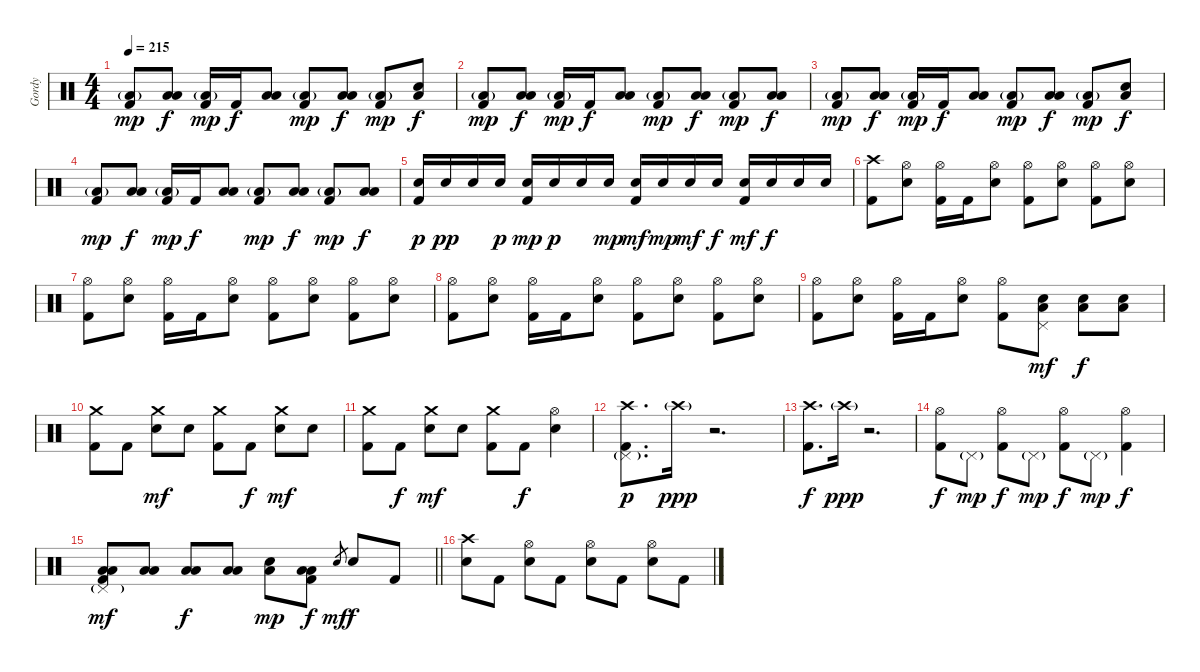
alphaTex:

\track ("Gordy" "Gordy") {instrument percussion}
\staff {score}
\articulation defaults
\ts (4 4)
\tempo 215
\clef neutral
\ks c
("Low Floor Tom (hit)"{g} "Kick (hit) 2").8{dy mp} ("Low Tom (hit)" "Low Floor Tom (hit)").8{dy f} ("Low Floor Tom (hit)"{g} "Kick (hit) 2").16{dy mp} "Kick (hit) 2".16{dy f} ("Low Tom (hit)" "Low Floor Tom (hit)").8 ("Low Floor Tom (hit)"{g} "Kick (hit) 2").8{dy mp} ("Low Tom (hit)" "Low Floor Tom (hit)").8{dy f} ("Low Floor Tom (hit)"{g} "Kick (hit) 2").8{dy mp} ("Electric Snare (hit)" "Low Floor Tom (hit)").8{dy f} |
("Low Floor Tom (hit)"{g} "Kick (hit) 2").8{dy mp} ("Low Tom (hit)" "Low Floor Tom (hit)").8{dy f} ("Low Floor Tom (hit)"{g} "Kick (hit) 2").16{dy mp} "Kick (hit) 2".16{dy f} ("Low Tom (hit)" "Low Floor Tom (hit)").8 ("Low Floor Tom (hit)"{g} "Kick (hit) 2").8{dy mp} ("Low Tom (hit)" "Low Floor Tom (hit)").8{dy f} ("Low Floor Tom (hit)"{g} "Kick (hit) 2").8{dy mp} ("Low Tom (hit)" "Low Floor Tom (hit)").8{dy f} |
("Low Floor Tom (hit)"{g} "Kick (hit) 2").8{dy mp} ("Low Tom (hit)" "Low Floor Tom (hit)").8{dy f} ("Low Floor Tom (hit)"{g} "Kick (hit) 2").16{dy mp} "Kick (hit) 2".16{dy f} ("Low Tom (hit)" "Low Floor Tom (hit)").8 ("Low Floor Tom (hit)"{g} "Kick (hit) 2").8{dy mp} ("Low Tom (hit)" "Low Floor Tom (hit)").8{dy f} ("Low Floor Tom (hit)"{g} "Kick (hit) 2").8{dy mp} ("Electric Snare (hit)" "Low Floor Tom (hit)").8{dy f} |
("Low Floor Tom (hit)"{g} "Kick (hit) 2").8{dy mp} ("Low Tom (hit)" "Low Floor Tom (hit)").8{dy f} ("Low Floor Tom (hit)"{g} "Kick (hit) 2").16{dy mp} "Kick (hit) 2".16{dy f} ("Low Tom (hit)" "Low Floor Tom (hit)").8 ("Low Floor Tom (hit)"{g} "Kick (hit) 2").8{dy mp} ("Low Tom (hit)" "Low Floor Tom (hit)").8{dy f} ("Low Floor Tom (hit)"{g} "Kick (hit) 2").8{dy mp} ("Low Tom (hit)" "Low Floor Tom (hit)").8{dy f} |
("Electric Snare (hit)" "Kick (hit) 2").16{dy p} "Electric Snare (hit)".16{dy pp} "Electric Snare (hit)".16 "Electric Snare (hit)".16{dy p} ("Electric Snare (hit)" "Kick (hit) 2").16{dy mp} "Electric Snare (hit)".16{dy p} "Electric Snare (hit)".16 "Electric Snare (hit)".16{dy mp} ("Electric Snare (hit)" "Kick (hit) 2").16{dy mf} "Electric Snare (hit)".16{dy mp} "Electric Snare (hit)".16{dy mf} "Electric Snare (hit)".16{dy f} ("Electric Snare (hit)" "Kick (hit) 2").16{dy mf} "Electric Snare (hit)".16{dy f} "Electric Snare (hit)".16 "Electric Snare (hit)".16 |
("Crash high (hit)" "Kick (hit) 2").8 ("Hi-Hat (open)" "Electric Snare (hit)").8 ("Hi-Hat (open)" "Kick (hit) 2").16 "Kick (hit) 2".16 ("Hi-Hat (open)" "Electric Snare (hit)").8 ("Hi-Hat (open)" "Kick (hit) 2").8 ("Hi-Hat (open)" "Electric Snare (hit)").8 ("Hi-Hat (open)" "Kick (hit) 2").8 ("Hi-Hat (open)" "Electric Snare (hit)").8 |
("Hi-Hat (open)" "Kick (hit) 2").8 ("Hi-Hat (open)" "Electric Snare (hit)").8 ("Hi-Hat (open)" "Kick (hit) 2").16 "Kick (hit) 2".16 ("Hi-Hat (open)" "Electric Snare (hit)").8 ("Hi-Hat (open)" "Kick (hit) 2").8 ("Hi-Hat (open)" "Electric Snare (hit)").8 ("Hi-Hat (open)" "Kick (hit) 2").8 ("Hi-Hat (open)" "Electric Snare (hit)").8 |
("Hi-Hat (open)" "Kick (hit) 2").8 ("Hi-Hat (open)" "Electric Snare (hit)").8 ("Hi-Hat (open)" "Kick (hit) 2").16 "Kick (hit) 2".16 ("Hi-Hat (open)" "Electric Snare (hit)").8 ("Hi-Hat (open)" "Kick (hit) 2").8 ("Hi-Hat (open)" "Electric Snare (hit)").8 ("Hi-Hat (open)" "Kick (hit) 2").8 ("Hi-Hat (open)" "Electric Snare (hit)").8 |
("Hi-Hat (open)" "Kick (hit) 2").8 ("Hi-Hat (open)" "Electric Snare (hit)").8 ("Hi-Hat (open)" "Kick (hit) 2").16 "Kick (hit) 2".16 ("Hi-Hat (open)" "Electric Snare (hit)").8 ("Hi-Hat (open)" "Kick (hit) 2").8 ("Pedal Hi-Hat (hit)" "Electric Snare (hit)" "Low Floor Tom (hit)").8{dy mf} ("Electric Snare (hit)" "Low Floor Tom (hit)").8{dy f} ("Electric Snare (hit)" "Low Floor Tom (hit)").8 |
("Crash medium (hit)" "Kick (hit) 2").8 "Kick (hit) 2".8 ("Crash medium (hit)" "Electric Snare (hit)").8{dy mf} "Electric Snare (hit)".8 ("Crash medium (hit)" "Kick (hit) 2").8 "Kick (hit) 2".8{dy f} ("Crash medium (hit)" "Electric Snare (hit)").8{dy mf} "Electric Snare (hit)".8 |
("Crash medium (hit)" "Kick (hit) 2").8 "Kick (hit) 2".8{dy f} ("Crash medium (hit)" "Electric Snare (hit)").8{dy mf} "Electric Snare (hit)".8 ("Crash medium (hit)" "Kick (hit) 2").8 "Kick (hit) 2".8{dy f} ("Hi-Hat (open)" "Electric Snare (hit)").4 |
("Pedal Hi-Hat (hit)"{g} "Crash high (hit)" "Kick (hit) 2").8{d dy p} "Crash high (hit)"{g}.16{dy ppp} r.2{d} |
("Crash high (hit)" "Kick (hit) 2").8{d dy f} "Crash high (hit)"{g}.16{dy ppp} r.2{d} |
("Hi-Hat (open)" "Kick (hit) 2").8{dy f} "Pedal Hi-Hat (hit)"{g}.8{dy mp} ("Hi-Hat (open)" "Kick (hit) 2").8{dy f} "Pedal Hi-Hat (hit)"{g}.8{dy mp} ("Hi-Hat (open)" "Kick (hit) 2").8{dy f} "Pedal Hi-Hat (hit)"{g}.8{dy mp} ("Hi-Hat (open)" "Kick (hit) 2").4{dy f} |
\barLineRight lightlight
("Pedal Hi-Hat (hit)"{g} "Low Tom (hit)" "Low Floor Tom (hit)" "Kick (hit) 2").8{dy mf} ("Low Tom (hit)" "Low Floor Tom (hit)").8 ("Low Tom (hit)" "Low Floor Tom (hit)").8{dy f} ("Low Tom (hit)" "Low Floor Tom (hit)").8 ("Electric Snare (hit)" "Low Floor Tom (hit)").8{dy mp} ("Low Tom (hit)" "Low Floor Tom (hit)" "Kick (hit) 2").8{dy f} "Electric Snare (hit)".8{gr dy mf} "Electric Snare (hit)".8{dy f} "Kick (hit) 2".8 |
\section ("" "")
("Crash high (hit)" "Electric Snare (hit)").8 "Kick (hit) 2".8 ("Hi-Hat (open)" "Electric Snare (hit)").8 "Kick (hit) 2".8 ("Hi-Hat (open)" "Electric Snare (hit)").8 "Kick (hit) 2".8 ("Hi-Hat (open)" "Electric Snare (hit)").8 "Kick (hit) 2".8
